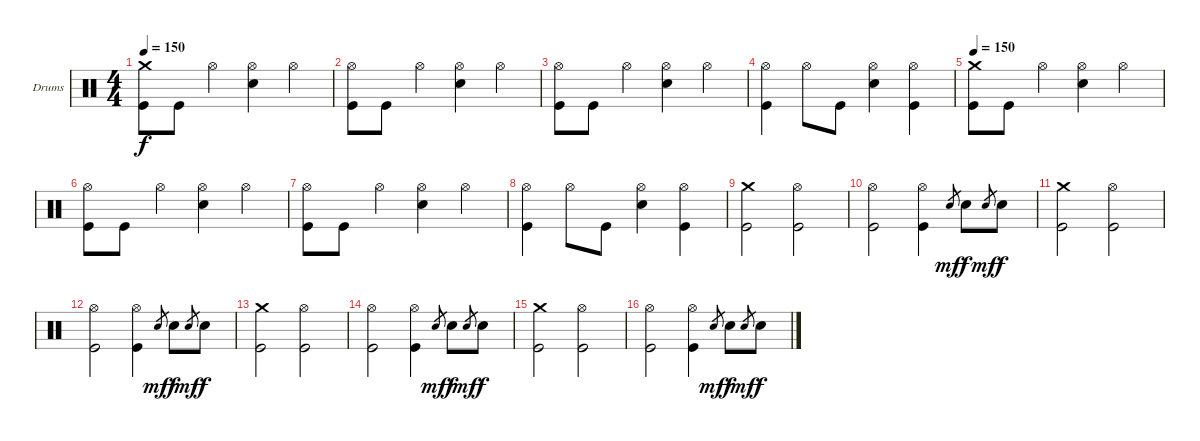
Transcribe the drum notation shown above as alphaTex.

\bracketExtendMode groupsimilarinstruments
\firstSystemTrackNameOrientation horizontal
\otherSystemsTrackNameOrientation horizontal
\track ("Drumkit" "Drums") {instrument percussion}
\staff {score}
\articulation defaults
\ts (4 4)
\tempo 150
\clef neutral
\ks c
("Crash medium (hit)" "Kick (hit)").8{dy f} "Kick (hit)".8 "Hi-Hat (open)".4 ("Hi-Hat (open)" "Snare (hit) 2").4 "Hi-Hat (open)".4 |
("Hi-Hat (open)" "Kick (hit)").8 "Kick (hit)".8 "Hi-Hat (open)".4 ("Hi-Hat (open)" "Snare (hit) 2").4 "Hi-Hat (open)".4 |
("Hi-Hat (open)" "Kick (hit)").8 "Kick (hit)".8 "Hi-Hat (open)".4 ("Hi-Hat (open)" "Snare (hit) 2").4 "Hi-Hat (open)".4 |
("Hi-Hat (open)" "Kick (hit)").4 "Hi-Hat (open)".8 "Kick (hit)".8 ("Hi-Hat (open)" "Snare (hit) 2").4 ("Hi-Hat (open)" "Kick (hit)").4 |
\tempo 150
("Crash medium (hit)" "Kick (hit)").8 "Kick (hit)".8 "Hi-Hat (open)".4 ("Hi-Hat (open)" "Snare (hit) 2").4 "Hi-Hat (open)".4 |
("Hi-Hat (open)" "Kick (hit)").8 "Kick (hit)".8 "Hi-Hat (open)".4 ("Hi-Hat (open)" "Snare (hit) 2").4 "Hi-Hat (open)".4 |
("Hi-Hat (open)" "Kick (hit)").8 "Kick (hit)".8 "Hi-Hat (open)".4 ("Hi-Hat (open)" "Snare (hit) 2").4 "Hi-Hat (open)".4 |
("Hi-Hat (open)" "Kick (hit)").4 "Hi-Hat (open)".8 "Kick (hit)".8 ("Hi-Hat (open)" "Snare (hit) 2").4 ("Hi-Hat (open)" "Kick (hit)").4 |
("Crash medium (hit)" "Kick (hit)").2 ("Hi-Hat (open)" "Kick (hit)").2 |
("Hi-Hat (open)" "Kick (hit)").2 ("Hi-Hat (open)" "Kick (hit)").4 "Snare (hit) 2".8{gr dy mf} "Snare (hit) 2".8{dy f} "Snare (hit) 2".8{gr dy mf} "Snare (hit) 2".8{dy f} |
("Crash medium (hit)" "Kick (hit)").2 ("Hi-Hat (open)" "Kick (hit)").2 |
("Hi-Hat (open)" "Kick (hit)").2 ("Hi-Hat (open)" "Kick (hit)").4 "Snare (hit) 2".8{gr dy mf} "Snare (hit) 2".8{dy f} "Snare (hit) 2".8{gr dy mf} "Snare (hit) 2".8{dy f} |
("Crash medium (hit)" "Kick (hit)").2 ("Hi-Hat (open)" "Kick (hit)").2 |
("Hi-Hat (open)" "Kick (hit)").2 ("Hi-Hat (open)" "Kick (hit)").4 "Snare (hit) 2".8{gr dy mf} "Snare (hit) 2".8{dy f} "Snare (hit) 2".8{gr dy mf} "Snare (hit) 2".8{dy f} |
("Crash medium (hit)" "Kick (hit)").2 ("Hi-Hat (open)" "Kick (hit)").2 |
("Hi-Hat (open)" "Kick (hit)").2 ("Hi-Hat (open)" "Kick (hit)").4 "Snare (hit) 2".8{gr dy mf} "Snare (hit) 2".8{dy f} "Snare (hit) 2".8{gr dy mf} "Snare (hit) 2".8{dy f}
